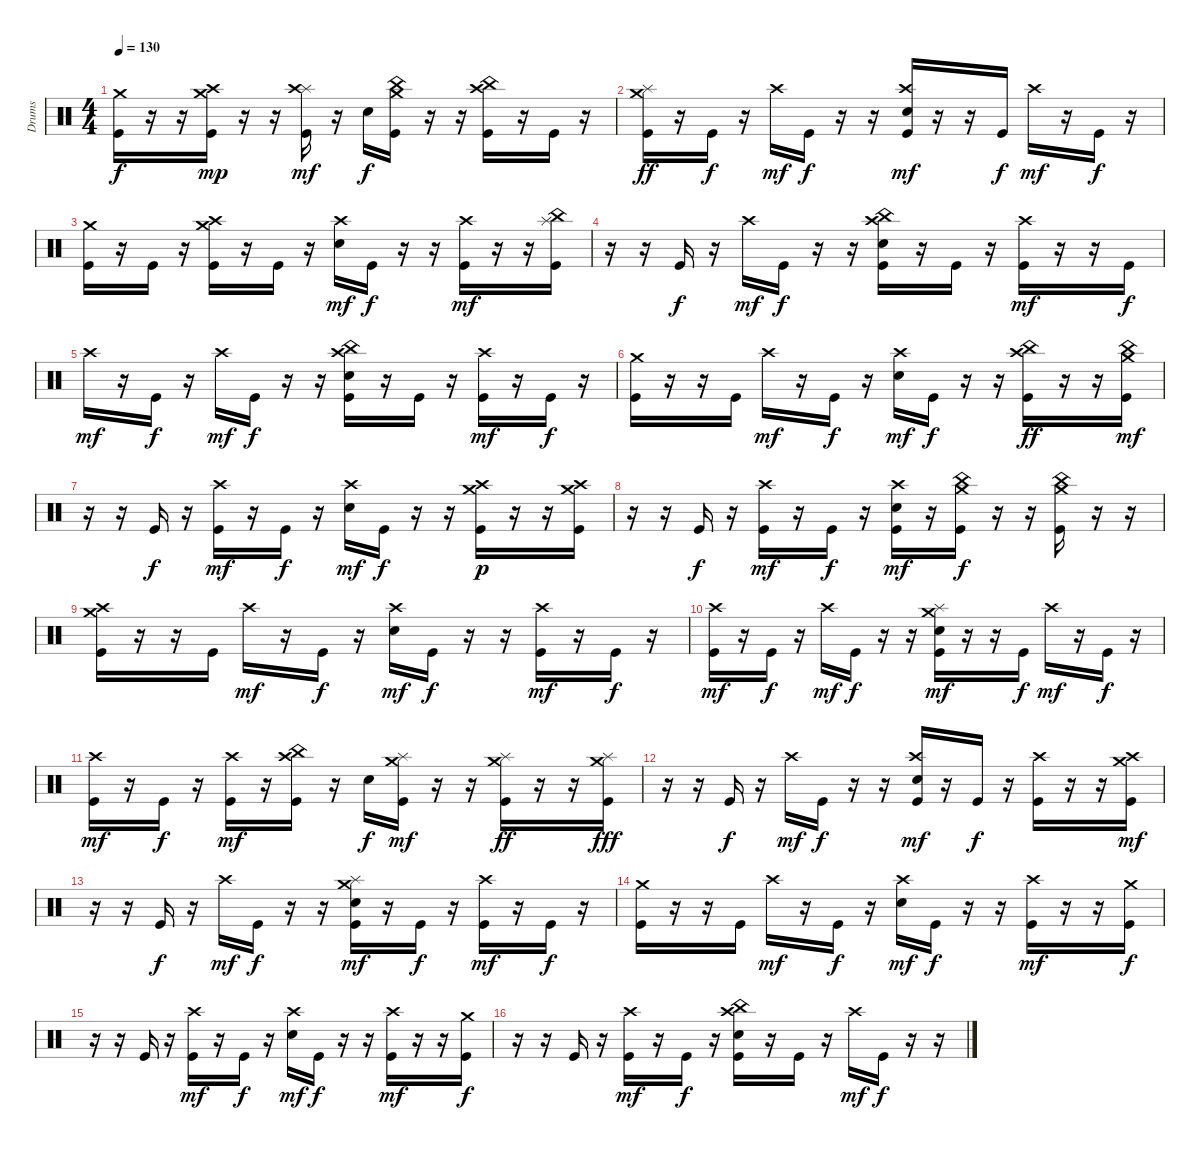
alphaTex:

\track ("Drums" "Drums") {instrument percussion}
\staff {score}
\articulation defaults
\ts (4 4)
\tempo 130
\clef neutral
\ks c
("Crash medium (hit)" "Kick (hit)").16{dy f} r.16 r.16 ("Crash medium (hit)" "Crash high (hit)" "Kick (hit)").16{dy mp} r.16 r.16 ("Splash (hit)" "Crash high (hit)" "Kick (hit)").16{dy mf} r.16 "Electric Snare (hit)".16{dy f} ("Crash medium (hit)" "China (hit)" "Kick (hit)").16 r.16 r.16 ("Crash high (hit)" "China (hit)" "Kick (hit)").16 r.16 "Kick (hit)".16 r.16 |
("Crash medium (hit)" "Splash (hit)" "Kick (hit)").16{dy ff} r.16 "Kick (hit)".16{dy f} r.16 "Crash high (hit)".16{dy mf} "Kick (hit)".16{dy f} r.16 r.16 ("Crash high (hit)" "Electric Snare (hit)" "Kick (hit)").16{dy mf} r.16 r.16 "Kick (hit)".16{dy f} "Crash high (hit)".16{dy mf} r.16 "Kick (hit)".16{dy f} r.16 |
("Crash medium (hit)" "Kick (hit)").16 r.16 "Kick (hit)".16 r.16 ("Crash high (hit)" "Crash medium (hit)" "Kick (hit)").16 r.16 "Kick (hit)".16 r.16 ("Crash high (hit)" "Electric Snare (hit)").16{dy mf} "Kick (hit)".16{dy f} r.16 r.16 ("Crash high (hit)" "Kick (hit)").16{dy mf} r.16 r.16 ("China (hit)" "Splash (hit)" "Kick (hit)").16 |
r.16 r.16 "Kick (hit)".16{dy f} r.16 "Crash high (hit)".16{dy mf} "Kick (hit)".16{dy f} r.16 r.16 ("Crash high (hit)" "China (hit)" "Electric Snare (hit)" "Kick (hit)").16 r.16 "Kick (hit)".16 r.16 ("Crash high (hit)" "Kick (hit)").16{dy mf} r.16 r.16 "Kick (hit)".16{dy f} |
"Crash high (hit)".16{dy mf} r.16 "Kick (hit)".16{dy f} r.16 "Crash high (hit)".16{dy mf} "Kick (hit)".16{dy f} r.16 r.16 ("Crash high (hit)" "China (hit)" "Electric Snare (hit)" "Kick (hit)").16 r.16 "Kick (hit)".16 r.16 ("Crash high (hit)" "Kick (hit)").16{dy mf} r.16 "Kick (hit)".16{dy f} r.16 |
("Crash medium (hit)" "Kick (hit)").16 r.16 r.16 "Kick (hit)".16 "Crash high (hit)".16{dy mf} r.16 "Kick (hit)".16{dy f} r.16 ("Crash high (hit)" "Electric Snare (hit)").16{dy mf} "Kick (hit)".16{dy f} r.16 r.16 ("Crash high (hit)" "China (hit)" "Kick (hit)").16{dy ff} r.16 r.16 ("Crash medium (hit)" "China (hit)" "Kick (hit)").16{dy mf} |
r.16 r.16 "Kick (hit)".16{dy f} r.16 ("Crash high (hit)" "Kick (hit)").16{dy mf} r.16 "Kick (hit)".16{dy f} r.16 ("Crash high (hit)" "Electric Snare (hit)").16{dy mf} "Kick (hit)".16{dy f} r.16 r.16 ("Crash high (hit)" "Crash medium (hit)" "Kick (hit)").16{dy p} r.16 r.16 ("Crash high (hit)" "Crash medium (hit)" "Kick (hit)").16 |
r.16 r.16 "Kick (hit)".16{dy f} r.16 ("Crash high (hit)" "Kick (hit)").16{dy mf} r.16 "Kick (hit)".16{dy f} r.16 ("Crash high (hit)" "Electric Snare (hit)" "Kick (hit)").16{dy mf} r.16 ("China (hit)" "Crash medium (hit)" "Kick (hit)").16{dy f} r.16 r.16 ("China (hit)" "Crash medium (hit)" "Kick (hit)").16 r.16 r.16 |
("Crash medium (hit)" "Crash high (hit)" "Kick (hit)").16 r.16 r.16 "Kick (hit)".16 "Crash high (hit)".16{dy mf} r.16 "Kick (hit)".16{dy f} r.16 ("Crash high (hit)" "Electric Snare (hit)").16{dy mf} "Kick (hit)".16{dy f} r.16 r.16 ("Crash high (hit)" "Kick (hit)").16{dy mf} r.16 "Kick (hit)".16{dy f} r.16 |
("Crash high (hit)" "Kick (hit)").16{dy mf} r.16 "Kick (hit)".16{dy f} r.16 "Crash high (hit)".16{dy mf} "Kick (hit)".16{dy f} r.16 r.16 ("Crash medium (hit)" "Splash (hit)" "Electric Snare (hit)" "Kick (hit)").16{dy mf} r.16 r.16 "Kick (hit)".16{dy f} "Crash high (hit)".16{dy mf} r.16 "Kick (hit)".16{dy f} r.16 |
("Crash high (hit)" "Kick (hit)").16{dy mf} r.16 "Kick (hit)".16{dy f} r.16 ("Crash high (hit)" "Kick (hit)").16{dy mf} r.16 ("China (hit)" "Crash high (hit)" "Kick (hit)").16 r.16 "Electric Snare (hit)".16{dy f} ("Crash medium (hit)" "Splash (hit)" "Kick (hit)").16{dy mf} r.16 r.16 ("Crash medium (hit)" "Splash (hit)" "Kick (hit)").16{dy ff} r.16 r.16 ("Crash medium (hit)" "Splash (hit)" "Kick (hit)").16{dy fff} |
r.16 r.16 "Kick (hit)".16{dy f} r.16 "Crash high (hit)".16{dy mf} "Kick (hit)".16{dy f} r.16 r.16 ("Crash high (hit)" "Electric Snare (hit)" "Kick (hit)").16{dy mf} r.16 "Kick (hit)".16{dy f} r.16 ("Crash high (hit)" "Kick (hit)").16 r.16 r.16 ("Crash medium (hit)" "Crash high (hit)" "Kick (hit)").16{dy mf} |
r.16 r.16 "Kick (hit)".16{dy f} r.16 "Crash high (hit)".16{dy mf} "Kick (hit)".16{dy f} r.16 r.16 ("Crash medium (hit)" "Splash (hit)" "Electric Snare (hit)" "Kick (hit)").16{dy mf} r.16 "Kick (hit)".16{dy f} r.16 ("Crash high (hit)" "Kick (hit)").16{dy mf} r.16 "Kick (hit)".16{dy f} r.16 |
("Crash medium (hit)" "Kick (hit)").16 r.16 r.16 "Kick (hit)".16 "Crash high (hit)".16{dy mf} r.16 "Kick (hit)".16{dy f} r.16 ("Crash high (hit)" "Electric Snare (hit)").16{dy mf} "Kick (hit)".16{dy f} r.16 r.16 ("Crash high (hit)" "Kick (hit)").16{dy mf} r.16 r.16 ("Crash medium (hit)" "Kick (hit)").16{dy f} |
r.16 r.16 "Kick (hit)".16 r.16 ("Crash high (hit)" "Kick (hit)").16{dy mf} r.16 "Kick (hit)".16{dy f} r.16 ("Crash high (hit)" "Electric Snare (hit)").16{dy mf} "Kick (hit)".16{dy f} r.16 r.16 ("Crash high (hit)" "Kick (hit)").16{dy mf} r.16 r.16 ("Crash medium (hit)" "Kick (hit)").16{dy f} |
r.16 r.16 "Kick (hit)".16 r.16 ("Crash high (hit)" "Kick (hit)").16{dy mf} r.16 "Kick (hit)".16{dy f} r.16 ("Crash high (hit)" "China (hit)" "Electric Snare (hit)" "Kick (hit)").16 r.16 "Kick (hit)".16 r.16 "Crash high (hit)".16{dy mf} "Kick (hit)".16{dy f} r.16 r.16
